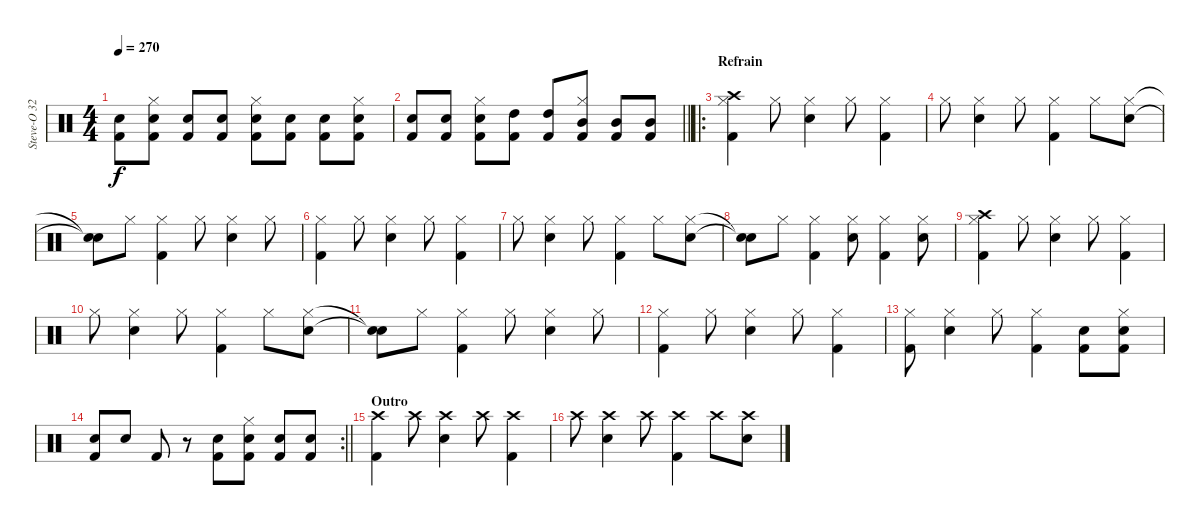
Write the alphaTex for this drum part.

\track ("Steve-O 32" "Steve-O 32") {instrument percussion}
\staff {score}
\articulation defaults
\ts (4 4)
\tempo 270
\clef neutral
\ks c
("Electric Snare (hit)" "Kick (hit) 2").8{dy f} ("Electric Snare (hit)" "Hi-Hat (closed)" "Kick (hit) 2").8 ("Electric Snare (hit)" "Kick (hit) 2").8 ("Electric Snare (hit)" "Kick (hit) 2").8 ("Electric Snare (hit)" "Hi-Hat (closed)" "Kick (hit) 2").8 ("Electric Snare (hit)" "Kick (hit) 2").8 ("Electric Snare (hit)" "Kick (hit) 2").8 ("Electric Snare (hit)" "Hi-Hat (closed)" "Kick (hit) 2").8 |
\barLineRight lightlight
("Electric Snare (hit)" "Kick (hit) 2").8 ("Electric Snare (hit)" "Kick (hit) 2").8 ("Electric Snare (hit)" "Hi-Hat (closed)" "Kick (hit) 2").8 ("High Tom (hit)" "Kick (hit) 2").8 ("High Tom (hit)" "Kick (hit) 2").8 ("Mid Tom (hit)" "Hi-Hat (closed)" "Kick (hit) 2").8 ("Mid Tom (hit)" "Kick (hit) 2").8 ("Mid Tom (hit)" "Kick (hit) 2").8 |
\ro
\section ("" "Refrain")
("Crash high (hit)" "Hi-Hat (closed)" "Kick (hit) 2").4{volume 10} "Hi-Hat (closed)".8 ("Electric Snare (hit)" "Hi-Hat (closed)").4 "Hi-Hat (closed)".8 ("Kick (hit) 2" "Hi-Hat (closed)").4 |
"Hi-Hat (closed)".8 ("Electric Snare (hit)" "Hi-Hat (closed)").4 "Hi-Hat (closed)".8 ("Kick (hit) 2" "Hi-Hat (closed)").4 "Hi-Hat (closed)".8 ("Electric Snare (hit)" "Hi-Hat (closed)").8 |
("Snare (hit)"{t} "Snare (hit)"{t}).8 "Hi-Hat (closed)".8 ("Kick (hit) 2" "Hi-Hat (closed)").4 "Hi-Hat (closed)".8 ("Electric Snare (hit)" "Hi-Hat (closed)").4 "Hi-Hat (closed)".8 |
("Hi-Hat (closed)" "Kick (hit) 2").4 "Hi-Hat (closed)".8 ("Electric Snare (hit)" "Hi-Hat (closed)").4 "Hi-Hat (closed)".8 ("Kick (hit) 2" "Hi-Hat (closed)").4 |
"Hi-Hat (closed)".8 ("Electric Snare (hit)" "Hi-Hat (closed)").4 "Hi-Hat (closed)".8 ("Kick (hit) 2" "Hi-Hat (closed)").4 "Hi-Hat (closed)".8 ("Electric Snare (hit)" "Hi-Hat (closed)").8 |
("Snare (hit)"{t} "Snare (hit)"{t}).8 "Hi-Hat (closed)".8 ("Kick (hit) 2" "Hi-Hat (closed)").4 ("Electric Snare (hit)" "Hi-Hat (closed)").8 ("Kick (hit) 2" "Hi-Hat (closed)").4 ("Electric Snare (hit)" "Hi-Hat (closed)").8 |
("Crash high (hit)" "Hi-Hat (closed)" "Kick (hit) 2").4 "Hi-Hat (closed)".8 ("Electric Snare (hit)" "Hi-Hat (closed)").4 "Hi-Hat (closed)".8 ("Kick (hit) 2" "Hi-Hat (closed)").4 |
"Hi-Hat (closed)".8 ("Electric Snare (hit)" "Hi-Hat (closed)").4 "Hi-Hat (closed)".8 ("Kick (hit) 2" "Hi-Hat (closed)").4 "Hi-Hat (closed)".8 ("Electric Snare (hit)" "Hi-Hat (closed)").8 |
("Snare (hit)"{t} "Snare (hit)"{t}).8 "Hi-Hat (closed)".8 ("Kick (hit) 2" "Hi-Hat (closed)").4 "Hi-Hat (closed)".8 ("Electric Snare (hit)" "Hi-Hat (closed)").4 "Hi-Hat (closed)".8 |
("Hi-Hat (closed)" "Kick (hit) 2").4 "Hi-Hat (closed)".8 ("Electric Snare (hit)" "Hi-Hat (closed)").4 "Hi-Hat (closed)".8 ("Kick (hit) 2" "Hi-Hat (closed)").4 |
("Hi-Hat (closed)" "Kick (hit) 2").8 ("Electric Snare (hit)" "Hi-Hat (closed)").4 "Hi-Hat (closed)".8 ("Kick (hit) 2" "Hi-Hat (closed)").4 ("Electric Snare (hit)" "Kick (hit) 2").8 ("Electric Snare (hit)" "Hi-Hat (closed)" "Kick (hit) 2").8 |
\rc 2
\barLineRight lightlight
("Electric Snare (hit)" "Kick (hit) 2").8 "Electric Snare (hit)".8 "Kick (hit) 2".8 r.8 ("Electric Snare (hit)" "Kick (hit) 2").8 ("Electric Snare (hit)" "Hi-Hat (closed)" "Kick (hit) 2").8 ("Electric Snare (hit)" "Kick (hit) 2").8 ("Electric Snare (hit)" "Kick (hit) 2").8 |
\section ("" "Outro")
("Crash high (hit)" "Kick (hit) 2").4 "Crash high (hit)".8 ("Electric Snare (hit)" "Crash high (hit)").4 "Crash high (hit)".8 ("Kick (hit) 2" "Crash high (hit)").4 |
"Crash high (hit)".8 ("Electric Snare (hit)" "Crash high (hit)").4 "Crash high (hit)".8 ("Kick (hit) 2" "Crash high (hit)").4 "Crash high (hit)".8 ("Electric Snare (hit)" "Crash high (hit)").8
